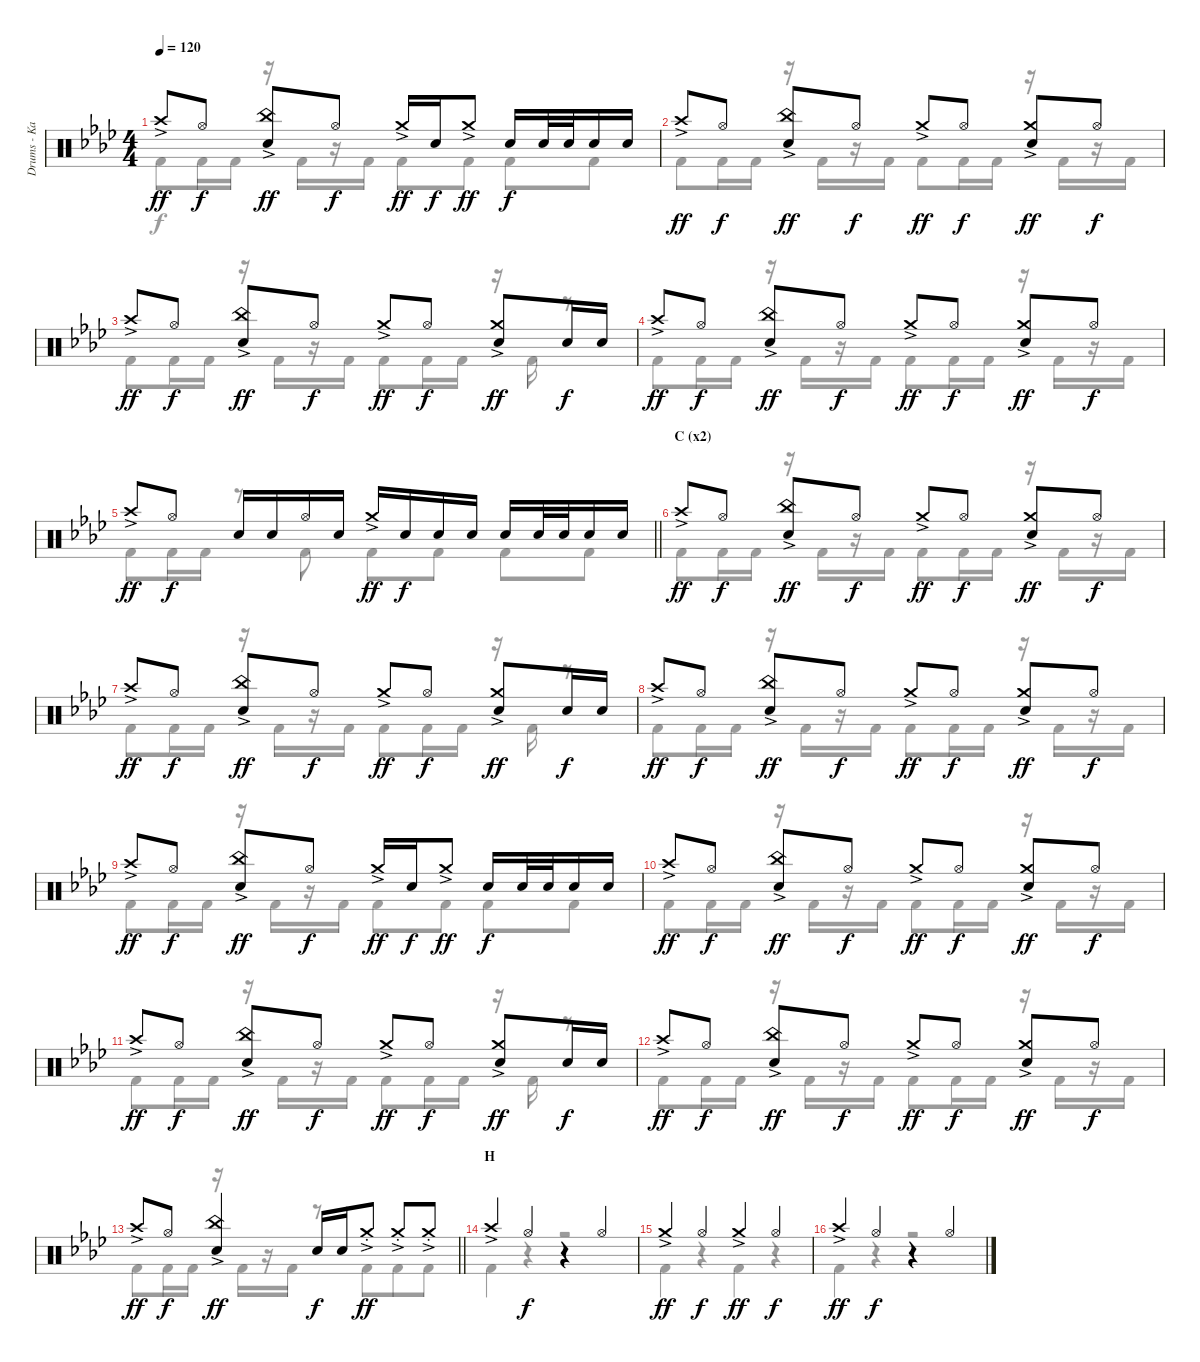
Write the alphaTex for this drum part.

\track ("Drums - Kai" "Drums - Ka") {instrument percussion}
\staff {score}
\articulation defaults
\voice
\ts (4 4)
\tempo 120
\clef neutral
\ks ab "Crash high (hit)"{ac}.8{dy ff} "Hi-Hat (open)".8{dy f}
("China (hit)"{ac} "Snare (hit) 2").8{dy ff} "Hi-Hat (open)".8{dy f} "Crash medium (hit)"{ac}.16{dy ff} "Snare (hit) 2".16{dy f} "Crash medium (hit)"{ac}.8{dy ff} "Snare (hit) 2".16{dy f} "Snare (hit) 2".32 "Snare (hit) 2".32 "Snare (hit) 2".16 "Snare (hit) 2".16 |
"Crash high (hit)"{ac}.8{dy ff} "Hi-Hat (open)".8{dy f} ("China (hit)"{ac} "Snare (hit) 2").8{dy ff} "Hi-Hat (open)".8{dy f} "Crash medium (hit)"{ac}.8{dy ff} "Hi-Hat (open)".8{dy f} ("Crash medium (hit)"{ac} "Snare (hit) 2").8{dy ff} "Hi-Hat (open)".8{dy f} |
"Crash high (hit)"{ac}.8{dy ff} "Hi-Hat (open)".8{dy f} ("China (hit)"{ac} "Snare (hit) 2").8{dy ff} "Hi-Hat (open)".8{dy f} "Crash medium (hit)"{ac}.8{dy ff} "Hi-Hat (open)".8{dy f} ("Crash medium (hit)"{ac} "Snare (hit) 2").8{dy ff} "Snare (hit) 2".16{dy f} "Snare (hit) 2".16 |
"Crash high (hit)"{ac}.8{dy ff} "Hi-Hat (open)".8{dy f} ("China (hit)"{ac} "Snare (hit) 2").8{dy ff} "Hi-Hat (open)".8{dy f} "Crash medium (hit)"{ac}.8{dy ff} "Hi-Hat (open)".8{dy f} ("Crash medium (hit)"{ac} "Snare (hit) 2").8{dy ff} "Hi-Hat (open)".8{dy f} |
\barLineRight lightlight "Crash high (hit)"{ac}.8{dy ff} "Hi-Hat (open)".8{dy f} "Snare (hit) 2".16 "Snare (hit) 2".16 "Hi-Hat (open)".16 "Snare (hit) 2".16 "Crash medium (hit)"{ac}.16{dy ff} "Snare (hit) 2".16{dy f} "Snare (hit) 2".16 "Snare (hit) 2".16 "Snare (hit) 2".16 "Snare (hit) 2".32 "Snare (hit) 2".32 "Snare (hit) 2".16 "Snare (hit) 2".16
|
\section ("" "C (x2)")
"Crash high (hit)"{ac}.8{dy ff} "Hi-Hat (open)".8{dy f} ("China (hit)"{ac} "Snare (hit) 2").8{dy ff} "Hi-Hat (open)".8{dy f} "Crash medium (hit)"{ac}.8{dy ff} "Hi-Hat (open)".8{dy f} ("Crash medium (hit)"{ac} "Snare (hit) 2").8{dy ff} "Hi-Hat (open)".8{dy f} |
"Crash high (hit)"{ac}.8{dy ff} "Hi-Hat (open)".8{dy f} ("China (hit)"{ac} "Snare (hit) 2").8{dy ff} "Hi-Hat (open)".8{dy f} "Crash medium (hit)"{ac}.8{dy ff} "Hi-Hat (open)".8{dy f} ("Crash medium (hit)"{ac} "Snare (hit) 2").8{dy ff} "Snare (hit) 2".16{dy f} "Snare (hit) 2".16 |
"Crash high (hit)"{ac}.8{dy ff} "Hi-Hat (open)".8{dy f} ("China (hit)"{ac} "Snare (hit) 2").8{dy ff} "Hi-Hat (open)".8{dy f} "Crash medium (hit)"{ac}.8{dy ff} "Hi-Hat (open)".8{dy f} ("Crash medium (hit)"{ac} "Snare (hit) 2").8{dy ff} "Hi-Hat (open)".8{dy f} |
"Crash high (hit)"{ac}.8{dy ff} "Hi-Hat (open)".8{dy f} ("China (hit)"{ac} "Snare (hit) 2").8{dy ff} "Hi-Hat (open)".8{dy f} "Crash medium (hit)"{ac}.16{dy ff} "Snare (hit) 2".16{dy f} "Crash medium (hit)"{ac}.8{dy ff} "Snare (hit) 2".16{dy f} "Snare (hit) 2".32 "Snare (hit) 2".32 "Snare (hit) 2".16 "Snare (hit) 2".16 |
"Crash high (hit)"{ac}.8{dy ff} "Hi-Hat (open)".8{dy f} ("China (hit)"{ac} "Snare (hit) 2").8{dy ff} "Hi-Hat (open)".8{dy f} "Crash medium (hit)"{ac}.8{dy ff} "Hi-Hat (open)".8{dy f} ("Crash medium (hit)"{ac} "Snare (hit) 2").8{dy ff} "Hi-Hat (open)".8{dy f} |
"Crash high (hit)"{ac}.8{dy ff} "Hi-Hat (open)".8{dy f} ("China (hit)"{ac} "Snare (hit) 2").8{dy ff} "Hi-Hat (open)".8{dy f} "Crash medium (hit)"{ac}.8{dy ff} "Hi-Hat (open)".8{dy f} ("Crash medium (hit)"{ac} "Snare (hit) 2").8{dy ff} "Snare (hit) 2".16{dy f} "Snare (hit) 2".16 |
"Crash high (hit)"{ac}.8{dy ff} "Hi-Hat (open)".8{dy f} ("China (hit)"{ac} "Snare (hit) 2").8{dy ff} "Hi-Hat (open)".8{dy f} "Crash medium (hit)"{ac}.8{dy ff} "Hi-Hat (open)".8{dy f} ("Crash medium (hit)"{ac} "Snare (hit) 2").8{dy ff} "Hi-Hat (open)".8{dy f} |
\barLineRight lightlight "Crash high (hit)"{ac}.8{dy ff} "Hi-Hat (open)".8{dy f}
("China (hit)"{ac} "Snare (hit) 2").4{dy ff} "Snare (hit) 2".16{dy f} "Snare (hit) 2".16 "Crash medium (hit)"{ac st}.8{dy ff} "Crash medium (hit)"{ac st}.8 "Crash medium (hit)"{ac st}.8 |
\section ("" "H")
"Crash high (hit)"{ac}.4 "Hi-Hat (open)".4{dy f} r.4 "Hi-Hat (open)".4 |
"Crash medium (hit)"{ac}.4{dy ff} "Hi-Hat (open)".4{dy f} "Crash medium (hit)"{ac}.4{dy ff} "Hi-Hat (open)".4{dy f} |
"Crash high (hit)"{ac}.4{dy ff} "Hi-Hat (open)".4{dy f} r.4 "Hi-Hat (open)".4
\voice
\clef neutral
\ottava regular
\simile none
\ks ab "Kick (hit) 2".8{dy f} "Kick (hit) 2".16 "Kick (hit) 2".16
r.16 "Kick (hit) 2".16 r.16 "Kick (hit) 2".16 "Kick (hit) 2".8 "Kick (hit) 2".8 "Kick (hit) 2".8 "Kick (hit) 2".8 |
"Kick (hit) 2".8 "Kick (hit) 2".16 "Kick (hit) 2".16 r.16 "Kick (hit) 2".16 r.16 "Kick (hit) 2".16 "Kick (hit) 2".8 "Kick (hit) 2".16 "Kick (hit) 2".16 r.16 "Kick (hit) 2".16 r.16 "Kick (hit) 2".16 |
"Kick (hit) 2".8 "Kick (hit) 2".16 "Kick (hit) 2".16 r.16 "Kick (hit) 2".16 r.16 "Kick (hit) 2".16 "Kick (hit) 2".8 "Kick (hit) 2".16 "Kick (hit) 2".16 r.16 "Kick (hit) 2".16 r.8 |
"Kick (hit) 2".8 "Kick (hit) 2".16 "Kick (hit) 2".16 r.16 "Kick (hit) 2".16 r.16 "Kick (hit) 2".16 "Kick (hit) 2".8 "Kick (hit) 2".16 "Kick (hit) 2".16 r.16 "Kick (hit) 2".16 r.16 "Kick (hit) 2".16 |
\barLineRight lightlight "Kick (hit) 2".8 "Kick (hit) 2".16 "Kick (hit) 2".16
r.8 "Kick (hit) 2".8 "Kick (hit) 2".8 "Kick (hit) 2".8 "Kick (hit) 2".8 "Kick (hit) 2".8 |
"Kick (hit) 2".8 "Kick (hit) 2".16 "Kick (hit) 2".16 r.16 "Kick (hit) 2".16 r.16 "Kick (hit) 2".16 "Kick (hit) 2".8 "Kick (hit) 2".16 "Kick (hit) 2".16 r.16 "Kick (hit) 2".16 r.16 "Kick (hit) 2".16 |
"Kick (hit) 2".8 "Kick (hit) 2".16 "Kick (hit) 2".16 r.16 "Kick (hit) 2".16 r.16 "Kick (hit) 2".16 "Kick (hit) 2".8 "Kick (hit) 2".16 "Kick (hit) 2".16 r.16 "Kick (hit) 2".16 r.8 |
"Kick (hit) 2".8 "Kick (hit) 2".16 "Kick (hit) 2".16 r.16 "Kick (hit) 2".16 r.16 "Kick (hit) 2".16 "Kick (hit) 2".8 "Kick (hit) 2".16 "Kick (hit) 2".16 r.16 "Kick (hit) 2".16 r.16 "Kick (hit) 2".16 |
"Kick (hit) 2".8 "Kick (hit) 2".16 "Kick (hit) 2".16 r.16 "Kick (hit) 2".16 r.16 "Kick (hit) 2".16 "Kick (hit) 2".8 "Kick (hit) 2".8 "Kick (hit) 2".8 "Kick (hit) 2".8 |
"Kick (hit) 2".8 "Kick (hit) 2".16 "Kick (hit) 2".16 r.16 "Kick (hit) 2".16 r.16 "Kick (hit) 2".16 "Kick (hit) 2".8 "Kick (hit) 2".16 "Kick (hit) 2".16 r.16 "Kick (hit) 2".16 r.16 "Kick (hit) 2".16 |
"Kick (hit) 2".8 "Kick (hit) 2".16 "Kick (hit) 2".16 r.16 "Kick (hit) 2".16 r.16 "Kick (hit) 2".16 "Kick (hit) 2".8 "Kick (hit) 2".16 "Kick (hit) 2".16 r.16 "Kick (hit) 2".16 r.8 |
"Kick (hit) 2".8 "Kick (hit) 2".16 "Kick (hit) 2".16 r.16 "Kick (hit) 2".16 r.16 "Kick (hit) 2".16 "Kick (hit) 2".8 "Kick (hit) 2".16 "Kick (hit) 2".16 r.16 "Kick (hit) 2".16 r.16 "Kick (hit) 2".16 |
\barLineRight lightlight "Kick (hit) 2".8 "Kick (hit) 2".16 "Kick (hit) 2".16
r.16 "Kick (hit) 2".16 r.16 "Kick (hit) 2".16 r.8 "Kick (hit) 2".8{beam merge} "Kick (hit) 2".8 "Kick (hit) 2".8 |
"Kick (hit) 2".4 r.4 r.2 |
"Kick (hit) 2".4 r.4 "Kick (hit) 2".4 r.4 |
"Kick (hit) 2".4 r.4 r.2
